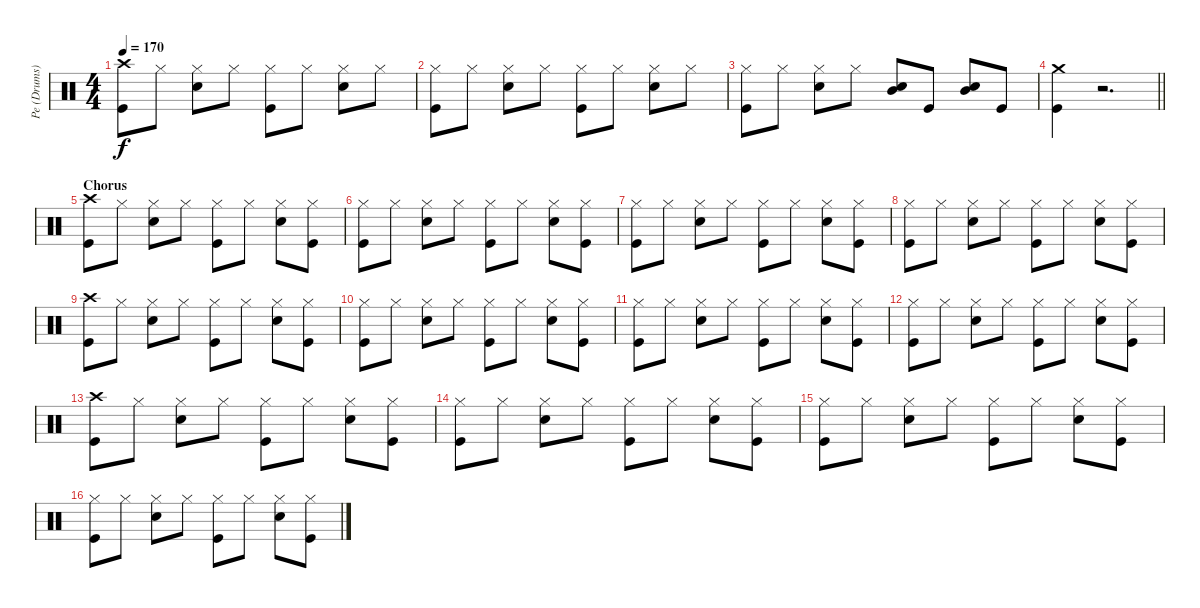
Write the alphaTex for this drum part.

\track ("Pe (Drums)" "Pe (Drums)") {instrument percussion}
\staff {score}
\articulation defaults
\ts (4 4)
\tempo 170
\clef neutral
\ks c
("Crash high (hit)" "Kick (hit)").8{dy f} "Hi-Hat (closed)".8 ("Hi-Hat (closed)" "Snare (hit) 2").8 "Hi-Hat (closed)".8 ("Hi-Hat (closed)" "Kick (hit)").8 "Hi-Hat (closed)".8 ("Hi-Hat (closed)" "Snare (hit) 2").8 "Hi-Hat (closed)".8 |
("Hi-Hat (closed)" "Kick (hit)").8 "Hi-Hat (closed)".8 ("Hi-Hat (closed)" "Snare (hit) 2").8 "Hi-Hat (closed)".8 ("Hi-Hat (closed)" "Kick (hit)").8 "Hi-Hat (closed)".8 ("Hi-Hat (closed)" "Snare (hit) 2").8 "Hi-Hat (closed)".8 |
("Hi-Hat (closed)" "Kick (hit)").8 "Hi-Hat (closed)".8 ("Hi-Hat (closed)" "Snare (hit) 2").8 "Hi-Hat (closed)".8 ("Snare (hit) 2" "Mid Tom (hit)").8 "Kick (hit)".8 ("Snare (hit) 2" "Mid Tom (hit)").8 "Kick (hit)".8 |
\barLineRight lightlight
("Crash medium (hit)" "Kick (hit)").4 r.2{d} |
\section ("" "Chorus")
("Crash high (hit)" "Kick (hit)").8 "Hi-Hat (closed)".8 ("Hi-Hat (closed)" "Snare (hit) 2").8 "Hi-Hat (closed)".8 ("Hi-Hat (closed)" "Kick (hit)").8 "Hi-Hat (closed)".8 ("Hi-Hat (closed)" "Snare (hit) 2").8 ("Hi-Hat (closed)" "Kick (hit)").8 |
("Hi-Hat (closed)" "Kick (hit)").8 "Hi-Hat (closed)".8 ("Hi-Hat (closed)" "Snare (hit) 2").8 "Hi-Hat (closed)".8 ("Hi-Hat (closed)" "Kick (hit)").8 "Hi-Hat (closed)".8 ("Hi-Hat (closed)" "Snare (hit) 2").8 ("Hi-Hat (closed)" "Kick (hit)").8 |
("Hi-Hat (closed)" "Kick (hit)").8 "Hi-Hat (closed)".8 ("Hi-Hat (closed)" "Snare (hit) 2").8 "Hi-Hat (closed)".8 ("Hi-Hat (closed)" "Kick (hit)").8 "Hi-Hat (closed)".8 ("Hi-Hat (closed)" "Snare (hit) 2").8 ("Hi-Hat (closed)" "Kick (hit)").8 |
("Hi-Hat (closed)" "Kick (hit)").8 "Hi-Hat (closed)".8 ("Hi-Hat (closed)" "Snare (hit) 2").8 "Hi-Hat (closed)".8 ("Hi-Hat (closed)" "Kick (hit)").8 "Hi-Hat (closed)".8 ("Hi-Hat (closed)" "Snare (hit) 2").8 ("Hi-Hat (closed)" "Kick (hit)").8 |
("Crash high (hit)" "Kick (hit)").8 "Hi-Hat (closed)".8 ("Hi-Hat (closed)" "Snare (hit) 2").8 "Hi-Hat (closed)".8 ("Hi-Hat (closed)" "Kick (hit)").8 "Hi-Hat (closed)".8 ("Hi-Hat (closed)" "Snare (hit) 2").8 ("Hi-Hat (closed)" "Kick (hit)").8 |
("Hi-Hat (closed)" "Kick (hit)").8 "Hi-Hat (closed)".8 ("Hi-Hat (closed)" "Snare (hit) 2").8 "Hi-Hat (closed)".8 ("Hi-Hat (closed)" "Kick (hit)").8 "Hi-Hat (closed)".8 ("Hi-Hat (closed)" "Snare (hit) 2").8 ("Hi-Hat (closed)" "Kick (hit)").8 |
("Hi-Hat (closed)" "Kick (hit)").8 "Hi-Hat (closed)".8 ("Hi-Hat (closed)" "Snare (hit) 2").8 "Hi-Hat (closed)".8 ("Hi-Hat (closed)" "Kick (hit)").8 "Hi-Hat (closed)".8 ("Hi-Hat (closed)" "Snare (hit) 2").8 ("Hi-Hat (closed)" "Kick (hit)").8 |
("Hi-Hat (closed)" "Kick (hit)").8 "Hi-Hat (closed)".8 ("Hi-Hat (closed)" "Snare (hit) 2").8 "Hi-Hat (closed)".8 ("Hi-Hat (closed)" "Kick (hit)").8 "Hi-Hat (closed)".8 ("Hi-Hat (closed)" "Snare (hit) 2").8 ("Hi-Hat (closed)" "Kick (hit)").8 |
("Crash high (hit)" "Kick (hit)").8 "Hi-Hat (closed)".8 ("Hi-Hat (closed)" "Snare (hit) 2").8 "Hi-Hat (closed)".8 ("Hi-Hat (closed)" "Kick (hit)").8 "Hi-Hat (closed)".8 ("Hi-Hat (closed)" "Snare (hit) 2").8 ("Hi-Hat (closed)" "Kick (hit)").8 |
("Hi-Hat (closed)" "Kick (hit)").8 "Hi-Hat (closed)".8 ("Hi-Hat (closed)" "Snare (hit) 2").8 "Hi-Hat (closed)".8 ("Hi-Hat (closed)" "Kick (hit)").8 "Hi-Hat (closed)".8 ("Hi-Hat (closed)" "Snare (hit) 2").8 ("Hi-Hat (closed)" "Kick (hit)").8 |
("Hi-Hat (closed)" "Kick (hit)").8 "Hi-Hat (closed)".8 ("Hi-Hat (closed)" "Snare (hit) 2").8 "Hi-Hat (closed)".8 ("Hi-Hat (closed)" "Kick (hit)").8 "Hi-Hat (closed)".8 ("Hi-Hat (closed)" "Snare (hit) 2").8 ("Hi-Hat (closed)" "Kick (hit)").8 |
("Hi-Hat (closed)" "Kick (hit)").8 "Hi-Hat (closed)".8 ("Hi-Hat (closed)" "Snare (hit) 2").8 "Hi-Hat (closed)".8 ("Hi-Hat (closed)" "Kick (hit)").8 "Hi-Hat (closed)".8 ("Hi-Hat (closed)" "Snare (hit) 2").8 ("Hi-Hat (closed)" "Kick (hit)").8
